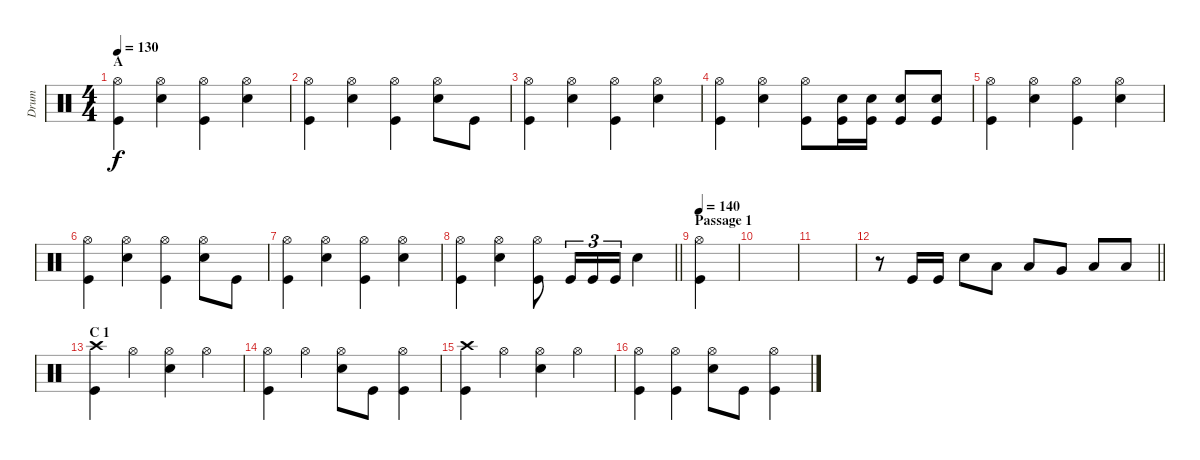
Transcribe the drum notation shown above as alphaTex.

\track ("Drum" "Drum") {instrument percussion}
\staff
\articulation defaults
\ts (4 4)
\section ("" "A")
\tempo 130
\clef neutral
\ks c
("Hi-Hat (open)" "Kick (hit)").4{dy f} ("Hi-Hat (open)" "Snare (hit) 2").4 ("Hi-Hat (open)" "Kick (hit)").4 ("Hi-Hat (open)" "Snare (hit) 2").4 |
("Hi-Hat (open)" "Kick (hit)").4 ("Hi-Hat (open)" "Snare (hit) 2").4 ("Hi-Hat (open)" "Kick (hit)").4 ("Hi-Hat (open)" "Snare (hit) 2").8 "Kick (hit)".8 |
("Hi-Hat (open)" "Kick (hit)").4 ("Hi-Hat (open)" "Snare (hit) 2").4 ("Hi-Hat (open)" "Kick (hit)").4 ("Hi-Hat (open)" "Snare (hit) 2").4 |
("Hi-Hat (open)" "Kick (hit)").4 ("Hi-Hat (open)" "Snare (hit) 2").4 ("Hi-Hat (open)" "Kick (hit)").8 ("Snare (hit) 2" "Kick (hit)").16 ("Snare (hit) 2" "Kick (hit)").16 ("Snare (hit) 2" "Kick (hit)").8 ("Snare (hit) 2" "Kick (hit)").8 |
("Hi-Hat (open)" "Kick (hit)").4 ("Hi-Hat (open)" "Snare (hit) 2").4 ("Hi-Hat (open)" "Kick (hit)").4 ("Hi-Hat (open)" "Snare (hit) 2").4 |
("Hi-Hat (open)" "Kick (hit)").4 ("Hi-Hat (open)" "Snare (hit) 2").4 ("Hi-Hat (open)" "Kick (hit)").4 ("Hi-Hat (open)" "Snare (hit) 2").8 "Kick (hit)".8 |
("Hi-Hat (open)" "Kick (hit)").4 ("Hi-Hat (open)" "Snare (hit) 2").4 ("Hi-Hat (open)" "Kick (hit)").4 ("Hi-Hat (open)" "Snare (hit) 2").4 |
\barLineRight lightlight
("Hi-Hat (open)" "Kick (hit)").4 ("Hi-Hat (open)" "Snare (hit) 2").4 ("Hi-Hat (open)" "Kick (hit)").8 "Kick (hit)".16{tu (3 2)} "Kick (hit)".16{tu (3 2)} "Kick (hit)".16{tu (3 2)} "Snare (hit) 2".4 |
\section ("" "Passage 1")
\tempo 140
("Hi-Hat (open)" "Kick (hit)").4 |
|
|
\barLineRight lightlight
r.8 "Kick (hit)".16 "Kick (hit)".16 "Snare (hit) 2".8 "Low Floor Tom (hit)".8 "Low Floor Tom (hit)".8 "Very Low Tom (hit)".8 "Low Floor Tom (hit)".8 "Low Floor Tom (hit)".8 |
\section ("" "C 1")
("Crash high (hit)" "Kick (hit)").4 "Hi-Hat (open)".4 ("Hi-Hat (open)" "Snare (hit) 2").4 "Hi-Hat (open)".4 |
("Hi-Hat (open)" "Kick (hit)").4 "Hi-Hat (open)".4 ("Hi-Hat (open)" "Snare (hit) 2").8 "Kick (hit)".8 ("Hi-Hat (open)" "Kick (hit)").4 |
("Crash high (hit)" "Kick (hit)").4 "Hi-Hat (open)".4 ("Hi-Hat (open)" "Snare (hit) 2").4 "Hi-Hat (open)".4 |
("Hi-Hat (open)" "Kick (hit)").4 ("Hi-Hat (open)" "Kick (hit)").4 ("Hi-Hat (open)" "Snare (hit) 2").8 "Kick (hit)".8 ("Hi-Hat (open)" "Kick (hit)").4
